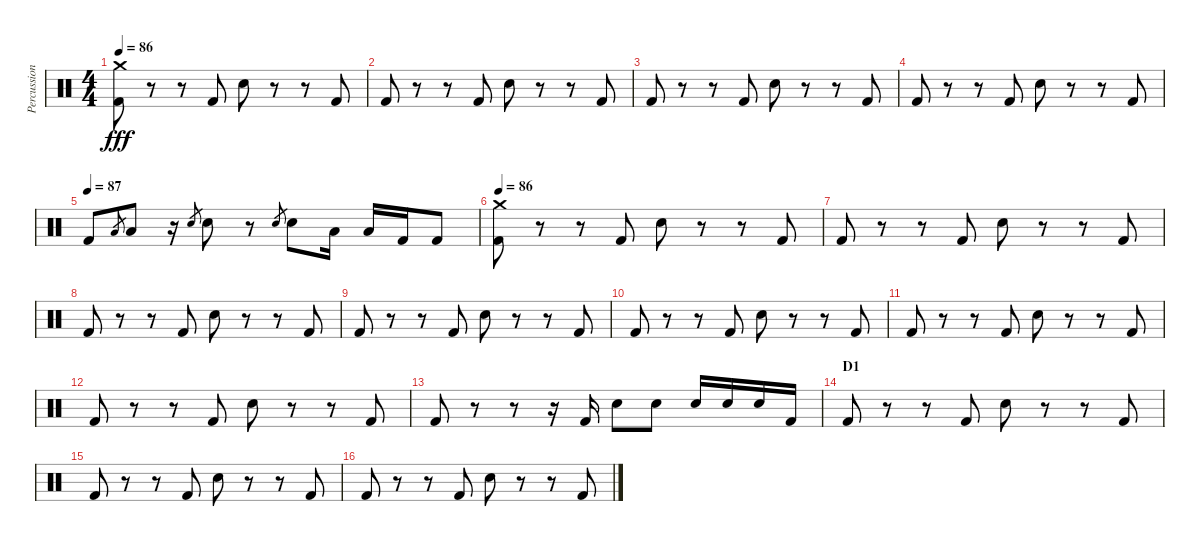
\track ("Percussion" "Percussion") {instrument percussion}
\staff {score}
\articulation defaults
\ts (4 4)
\tempo 86
\clef neutral
\ks c
("Kick (hit) 2" "Crash medium (hit)").8{dy fff} r.8 r.8 "Kick (hit) 2".8 "Electric Snare (hit)".8 r.8 r.8 "Kick (hit) 2".8 |
"Kick (hit) 2".8 r.8 r.8 "Kick (hit) 2".8 "Electric Snare (hit)".8 r.8 r.8 "Kick (hit) 2".8 |
"Kick (hit) 2".8 r.8 r.8 "Kick (hit) 2".8 "Electric Snare (hit)".8 r.8 r.8 "Kick (hit) 2".8 |
"Kick (hit) 2".8 r.8 r.8 "Kick (hit) 2".8 "Electric Snare (hit)".8 r.8 r.8 "Kick (hit) 2".8 |
\tempo (87)
"Kick (hit) 2".8 "Low Tom (hit)".8{gr} "Low Tom (hit)".8 r.16 "Electric Snare (hit)".8{gr} "Electric Snare (hit)".8 r.8 "Electric Snare (hit)".8{gr} "Electric Snare (hit)".8 "Low Tom (hit)".16 "Low Tom (hit)".16 "Kick (hit) 2".16 "Kick (hit) 2".8 |
\tempo 86
("Kick (hit) 2" "Crash medium (hit)").8 r.8 r.8 "Kick (hit) 2".8 "Electric Snare (hit)".8 r.8 r.8 "Kick (hit) 2".8 |
"Kick (hit) 2".8 r.8 r.8 "Kick (hit) 2".8 "Electric Snare (hit)".8 r.8 r.8 "Kick (hit) 2".8 |
"Kick (hit) 2".8 r.8 r.8 "Kick (hit) 2".8 "Electric Snare (hit)".8 r.8 r.8 "Kick (hit) 2".8 |
"Kick (hit) 2".8 r.8 r.8 "Kick (hit) 2".8 "Electric Snare (hit)".8 r.8 r.8 "Kick (hit) 2".8 |
"Kick (hit) 2".8 r.8 r.8 "Kick (hit) 2".8 "Electric Snare (hit)".8 r.8 r.8 "Kick (hit) 2".8 |
"Kick (hit) 2".8 r.8 r.8 "Kick (hit) 2".8 "Electric Snare (hit)".8 r.8 r.8 "Kick (hit) 2".8 |
"Kick (hit) 2".8 r.8 r.8 "Kick (hit) 2".8 "Electric Snare (hit)".8 r.8 r.8 "Kick (hit) 2".8 |
"Kick (hit) 2".8 r.8 r.8 r.16 "Kick (hit) 2".16 "Electric Snare (hit)".8 "Electric Snare (hit)".8 "Electric Snare (hit)".16 "Electric Snare (hit)".16 "Electric Snare (hit)".16 "Kick (hit) 2".16 |
\section ("" "D1")
"Kick (hit) 2".8 r.8 r.8 "Kick (hit) 2".8 "Electric Snare (hit)".8 r.8 r.8 "Kick (hit) 2".8 |
"Kick (hit) 2".8 r.8 r.8 "Kick (hit) 2".8 "Electric Snare (hit)".8 r.8 r.8 "Kick (hit) 2".8 |
"Kick (hit) 2".8 r.8 r.8 "Kick (hit) 2".8 "Electric Snare (hit)".8 r.8 r.8 "Kick (hit) 2".8
